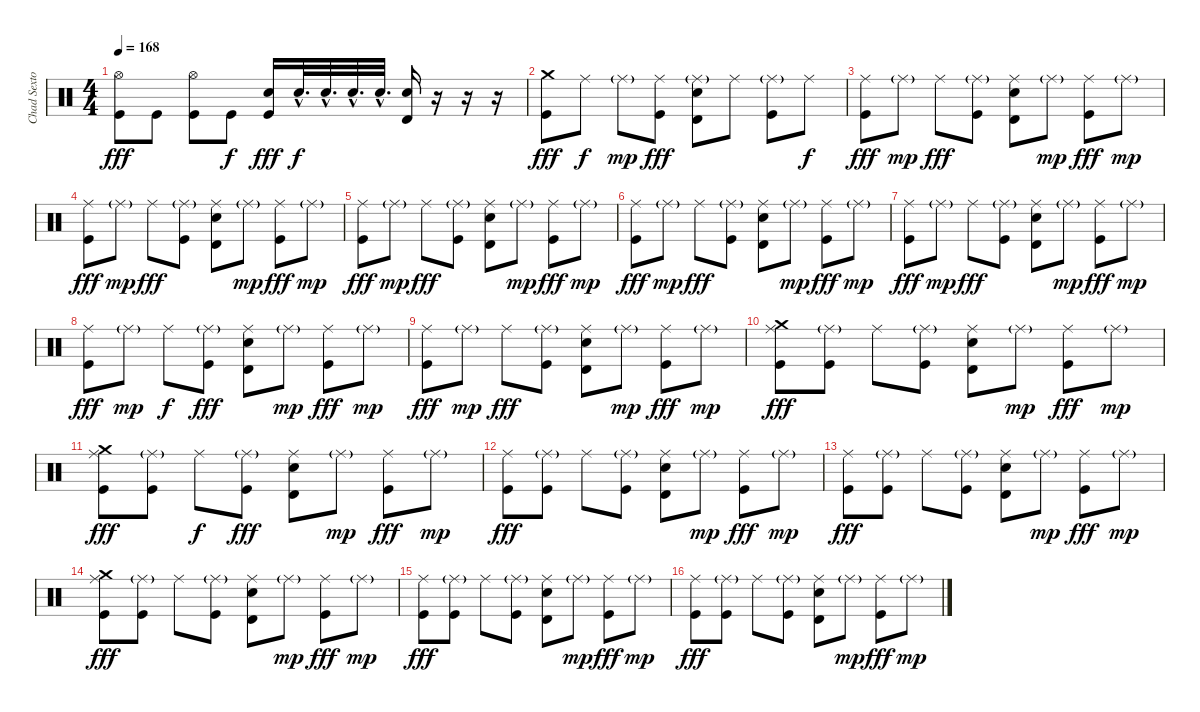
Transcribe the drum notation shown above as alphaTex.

\track ("Chad Sexton" "Chad Sexto") {instrument percussion}
\staff {score}
\articulation defaults
\ts (4 4)
\tempo 168
\clef neutral
\ks c
("Hi-Hat (open)" "Kick (hit)").8{dy fff} "Kick (hit)".8 ("Hi-Hat (open)" "Kick (hit)").8 "Kick (hit)".8{dy f} ("Electric Snare (hit)" "Kick (hit)").16{dy fff} "Electric Snare (hit)"{hac}.32{d dy f} "Electric Snare (hit)"{hac}.32{d} "Electric Snare (hit)"{hac}.32{d} "Electric Snare (hit)"{hac}.32{d} ("Electric Snare (hit)" "Timbale high (hit)").16 r.16 r.16 r.16 |
("Crash medium (hit)" "Kick (hit)").8{dy fff} "Ride (middle)".8{dy f} "Ride (middle)"{g}.8{dy mp} ("Ride (middle)" "Kick (hit)").8{dy fff} ("Ride (middle)"{g} "Electric Snare (hit)" "Timbale high (hit)").8 "Ride (middle)".8 ("Ride (middle)"{g} "Kick (hit)").8 "Ride (middle)".8{dy f} |
("Ride (middle)" "Kick (hit)").8{dy fff} "Ride (middle)"{g}.8{dy mp} "Ride (middle)".8{dy fff} ("Ride (middle)"{g} "Kick (hit)").8 ("Ride (middle)" "Electric Snare (hit)" "Timbale high (hit)").8 "Ride (middle)"{g}.8{dy mp} ("Ride (middle)" "Kick (hit)").8{dy fff} "Ride (middle)"{g}.8{dy mp} |
("Ride (middle)" "Kick (hit)").8{dy fff} "Ride (middle)"{g}.8{dy mp} "Ride (middle)".8{dy fff} ("Ride (middle)"{g} "Kick (hit)").8 ("Ride (middle)" "Electric Snare (hit)" "Timbale high (hit)").8 "Ride (middle)"{g}.8{dy mp} ("Ride (middle)" "Kick (hit)").8{dy fff} "Ride (middle)"{g}.8{dy mp} |
("Ride (middle)" "Kick (hit)").8{dy fff} "Ride (middle)"{g}.8{dy mp} "Ride (middle)".8{dy fff} ("Ride (middle)"{g} "Kick (hit)").8 ("Ride (middle)" "Electric Snare (hit)" "Timbale high (hit)").8 "Ride (middle)"{g}.8{dy mp} ("Ride (middle)" "Kick (hit)").8{dy fff} "Ride (middle)"{g}.8{dy mp} |
("Ride (middle)" "Kick (hit)").8{dy fff} "Ride (middle)"{g}.8{dy mp} "Ride (middle)".8{dy fff} ("Ride (middle)"{g} "Kick (hit)").8 ("Ride (middle)" "Electric Snare (hit)" "Timbale high (hit)").8 "Ride (middle)"{g}.8{dy mp} ("Ride (middle)" "Kick (hit)").8{dy fff} "Ride (middle)"{g}.8{dy mp} |
("Ride (middle)" "Kick (hit)").8{dy fff} "Ride (middle)"{g}.8{dy mp} "Ride (middle)".8{dy fff} ("Ride (middle)"{g} "Kick (hit)").8 ("Ride (middle)" "Electric Snare (hit)" "Timbale high (hit)").8 "Ride (middle)"{g}.8{dy mp} ("Ride (middle)" "Kick (hit)").8{dy fff} "Ride (middle)"{g}.8{dy mp} |
("Ride (middle)" "Kick (hit)").8{dy fff} "Ride (middle)"{g}.8{dy mp} "Ride (middle)".8{dy f} ("Ride (middle)"{g} "Kick (hit)").8{dy fff} ("Ride (middle)" "Electric Snare (hit)" "Timbale high (hit)").8 "Ride (middle)"{g}.8{dy mp} ("Ride (middle)" "Kick (hit)").8{dy fff} "Ride (middle)"{g}.8{dy mp} |
("Ride (middle)" "Kick (hit)").8{dy fff} "Ride (middle)"{g}.8{dy mp} "Ride (middle)".8{dy fff} ("Ride (middle)"{g} "Kick (hit)").8 ("Ride (middle)" "Electric Snare (hit)" "Timbale high (hit)").8 "Ride (middle)"{g}.8{dy mp} ("Ride (middle)" "Kick (hit)").8{dy fff} "Ride (middle)"{g}.8{dy mp} |
("Crash medium (hit)" "Ride (middle)" "Kick (hit)").8{dy fff} ("Ride (middle)"{g} "Kick (hit)").8 "Ride (middle)".8 ("Ride (middle)"{g} "Kick (hit)").8 ("Ride (middle)" "Electric Snare (hit)" "Timbale high (hit)").8 "Ride (middle)"{g}.8{dy mp} ("Ride (middle)" "Kick (hit)").8{dy fff} "Ride (middle)"{g}.8{dy mp} |
("Crash medium (hit)" "Ride (middle)" "Kick (hit)").8{dy fff} ("Ride (middle)"{g} "Kick (hit)").8 "Ride (middle)".8{dy f} ("Ride (middle)"{g} "Kick (hit)").8{dy fff} ("Ride (middle)" "Electric Snare (hit)" "Timbale high (hit)").8 "Ride (middle)"{g}.8{dy mp} ("Ride (middle)" "Kick (hit)").8{dy fff} "Ride (middle)"{g}.8{dy mp} |
("Ride (middle)" "Kick (hit)").8{dy fff} ("Ride (middle)"{g} "Kick (hit)").8 "Ride (middle)".8 ("Ride (middle)"{g} "Kick (hit)").8 ("Ride (middle)" "Electric Snare (hit)" "Timbale high (hit)").8 "Ride (middle)"{g}.8{dy mp} ("Ride (middle)" "Kick (hit)").8{dy fff} "Ride (middle)"{g}.8{dy mp} |
("Ride (middle)" "Kick (hit)").8{dy fff} ("Ride (middle)"{g} "Kick (hit)").8 "Ride (middle)".8 ("Ride (middle)"{g} "Kick (hit)").8 ("Ride (middle)" "Electric Snare (hit)" "Timbale high (hit)").8 "Ride (middle)"{g}.8{dy mp} ("Ride (middle)" "Kick (hit)").8{dy fff} "Ride (middle)"{g}.8{dy mp} |
("Crash medium (hit)" "Ride (middle)" "Kick (hit)").8{dy fff} ("Ride (middle)"{g} "Kick (hit)").8 "Ride (middle)".8 ("Ride (middle)"{g} "Kick (hit)").8 ("Ride (middle)" "Electric Snare (hit)" "Timbale high (hit)").8 "Ride (middle)"{g}.8{dy mp} ("Ride (middle)" "Kick (hit)").8{dy fff} "Ride (middle)"{g}.8{dy mp} |
("Ride (middle)" "Kick (hit)").8{dy fff} ("Ride (middle)"{g} "Kick (hit)").8 "Ride (middle)".8 ("Ride (middle)"{g} "Kick (hit)").8 ("Ride (middle)" "Electric Snare (hit)" "Timbale high (hit)").8 "Ride (middle)"{g}.8{dy mp} ("Ride (middle)" "Kick (hit)").8{dy fff} "Ride (middle)"{g}.8{dy mp} |
("Ride (middle)" "Kick (hit)").8{dy fff} ("Ride (middle)"{g} "Kick (hit)").8 "Ride (middle)".8 ("Ride (middle)"{g} "Kick (hit)").8 ("Ride (middle)" "Electric Snare (hit)" "Timbale high (hit)").8 "Ride (middle)"{g}.8{dy mp} ("Ride (middle)" "Kick (hit)").8{dy fff} "Ride (middle)"{g}.8{dy mp}
